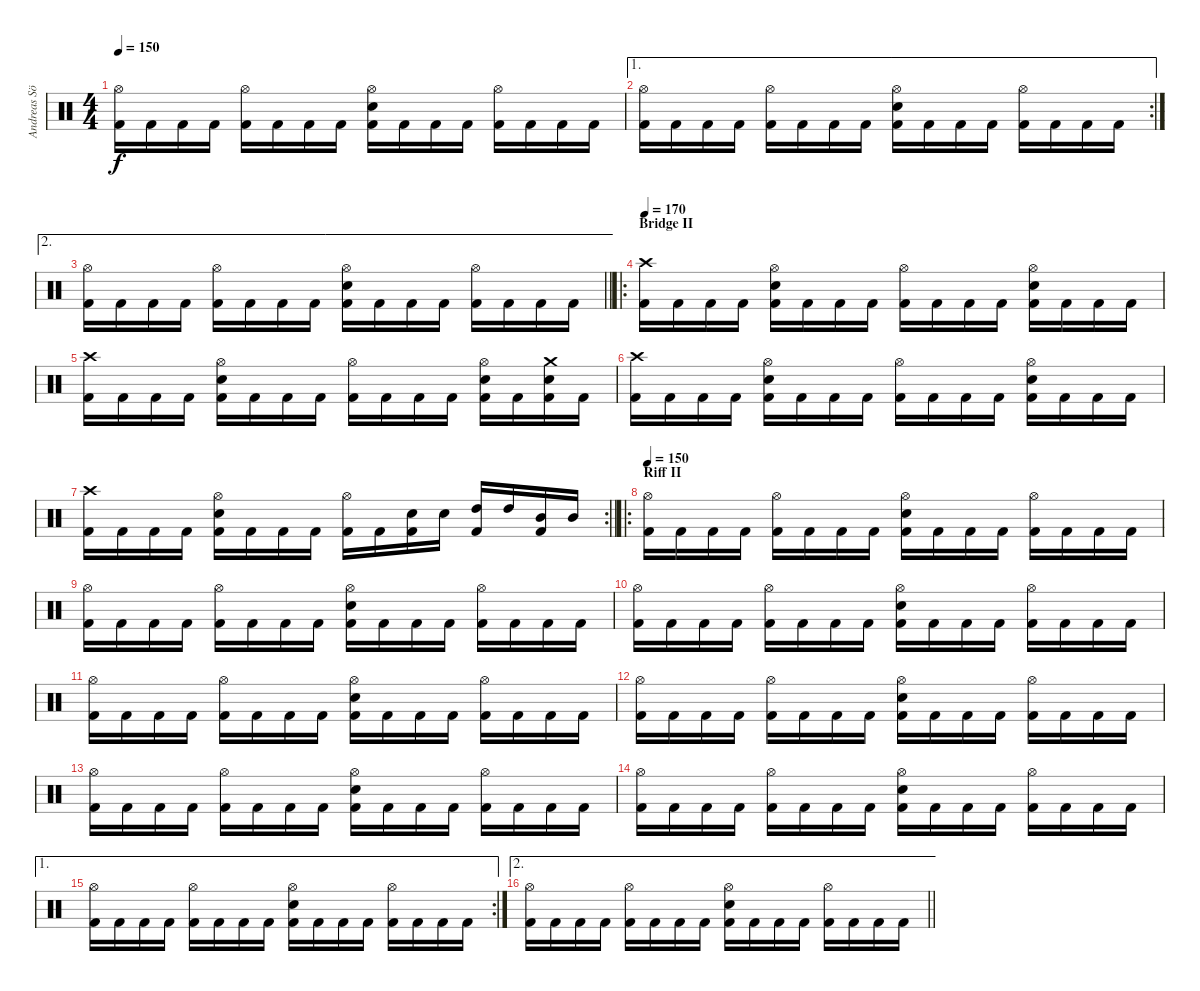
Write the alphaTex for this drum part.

\track ("Andreas Söderlund" "Andreas Sö") {instrument percussion}
\staff {score}
\articulation defaults
\ts (4 4)
\tempo 150
\clef neutral
\ks c
("Hi-Hat (open)" "Kick (hit) 2").16{dy f} "Kick (hit) 2".16 "Kick (hit) 2".16 "Kick (hit) 2".16 ("Hi-Hat (open)" "Kick (hit) 2").16 "Kick (hit) 2".16 "Kick (hit) 2".16 "Kick (hit) 2".16 ("Hi-Hat (open)" "Electric Snare (hit)" "Kick (hit) 2").16 "Kick (hit) 2".16 "Kick (hit) 2".16 "Kick (hit) 2".16 ("Hi-Hat (open)" "Kick (hit) 2").16 "Kick (hit) 2".16 "Kick (hit) 2".16 "Kick (hit) 2".16 |
\ae 1
\rc 2
("Hi-Hat (open)" "Kick (hit) 2").16 "Kick (hit) 2".16 "Kick (hit) 2".16 "Kick (hit) 2".16 ("Hi-Hat (open)" "Kick (hit) 2").16 "Kick (hit) 2".16 "Kick (hit) 2".16 "Kick (hit) 2".16 ("Hi-Hat (open)" "Electric Snare (hit)" "Kick (hit) 2").16 "Kick (hit) 2".16 "Kick (hit) 2".16 "Kick (hit) 2".16 ("Hi-Hat (open)" "Kick (hit) 2").16 "Kick (hit) 2".16 "Kick (hit) 2".16 "Kick (hit) 2".16 |
\ae 2
\barLineRight lightlight
("Hi-Hat (open)" "Kick (hit) 2").16 "Kick (hit) 2".16 "Kick (hit) 2".16 "Kick (hit) 2".16 ("Hi-Hat (open)" "Kick (hit) 2").16 "Kick (hit) 2".16 "Kick (hit) 2".16 "Kick (hit) 2".16 ("Hi-Hat (open)" "Electric Snare (hit)" "Kick (hit) 2").16 "Kick (hit) 2".16 "Kick (hit) 2".16 "Kick (hit) 2".16 ("Hi-Hat (open)" "Kick (hit) 2").16 "Kick (hit) 2".16 "Kick (hit) 2".16 "Kick (hit) 2".16 |
\ro
\section ("" "Bridge II")
\tempo 170
("Crash high (hit)" "Kick (hit) 2").16 "Kick (hit) 2".16 "Kick (hit) 2".16 "Kick (hit) 2".16 ("Hi-Hat (open)" "Electric Snare (hit)" "Kick (hit) 2").16 "Kick (hit) 2".16 "Kick (hit) 2".16 "Kick (hit) 2".16 ("Hi-Hat (open)" "Kick (hit) 2").16 "Kick (hit) 2".16 "Kick (hit) 2".16 "Kick (hit) 2".16 ("Hi-Hat (open)" "Electric Snare (hit)" "Kick (hit) 2").16 "Kick (hit) 2".16 "Kick (hit) 2".16 "Kick (hit) 2".16 |
("Crash high (hit)" "Kick (hit) 2").16 "Kick (hit) 2".16 "Kick (hit) 2".16 "Kick (hit) 2".16 ("Hi-Hat (open)" "Electric Snare (hit)" "Kick (hit) 2").16 "Kick (hit) 2".16 "Kick (hit) 2".16 "Kick (hit) 2".16 ("Hi-Hat (open)" "Kick (hit) 2").16 "Kick (hit) 2".16 "Kick (hit) 2".16 "Kick (hit) 2".16 ("Hi-Hat (open)" "Electric Snare (hit)" "Kick (hit) 2").16 "Kick (hit) 2".16 ("Crash medium (hit)" "Electric Snare (hit)" "Kick (hit) 2").16 "Kick (hit) 2".16 |
("Crash high (hit)" "Kick (hit) 2").16 "Kick (hit) 2".16 "Kick (hit) 2".16 "Kick (hit) 2".16 ("Hi-Hat (open)" "Electric Snare (hit)" "Kick (hit) 2").16 "Kick (hit) 2".16 "Kick (hit) 2".16 "Kick (hit) 2".16 ("Hi-Hat (open)" "Kick (hit) 2").16 "Kick (hit) 2".16 "Kick (hit) 2".16 "Kick (hit) 2".16 ("Hi-Hat (open)" "Electric Snare (hit)" "Kick (hit) 2").16 "Kick (hit) 2".16 "Kick (hit) 2".16 "Kick (hit) 2".16 |
\rc 2
\barLineRight lightlight
("Crash high (hit)" "Kick (hit) 2").16 "Kick (hit) 2".16 "Kick (hit) 2".16 "Kick (hit) 2".16 ("Hi-Hat (open)" "Electric Snare (hit)" "Kick (hit) 2").16 "Kick (hit) 2".16 "Kick (hit) 2".16 "Kick (hit) 2".16 ("Hi-Hat (open)" "Kick (hit) 2").16 "Kick (hit) 2".16 ("Electric Snare (hit)" "Kick (hit) 2").16 "Electric Snare (hit)".16 ("High Tom (hit)" "Kick (hit) 2").16 "High Tom (hit)".16 ("Mid Tom (hit)" "Kick (hit) 2").16 "Mid Tom (hit)".16 |
\ro
\section ("" "Riff II")
\tempo 150
("Hi-Hat (open)" "Kick (hit) 2").16 "Kick (hit) 2".16 "Kick (hit) 2".16 "Kick (hit) 2".16 ("Hi-Hat (open)" "Kick (hit) 2").16 "Kick (hit) 2".16 "Kick (hit) 2".16 "Kick (hit) 2".16 ("Hi-Hat (open)" "Electric Snare (hit)" "Kick (hit) 2").16 "Kick (hit) 2".16 "Kick (hit) 2".16 "Kick (hit) 2".16 ("Hi-Hat (open)" "Kick (hit) 2").16 "Kick (hit) 2".16 "Kick (hit) 2".16 "Kick (hit) 2".16 |
("Hi-Hat (open)" "Kick (hit) 2").16 "Kick (hit) 2".16 "Kick (hit) 2".16 "Kick (hit) 2".16 ("Hi-Hat (open)" "Kick (hit) 2").16 "Kick (hit) 2".16 "Kick (hit) 2".16 "Kick (hit) 2".16 ("Hi-Hat (open)" "Electric Snare (hit)" "Kick (hit) 2").16 "Kick (hit) 2".16 "Kick (hit) 2".16 "Kick (hit) 2".16 ("Hi-Hat (open)" "Kick (hit) 2").16 "Kick (hit) 2".16 "Kick (hit) 2".16 "Kick (hit) 2".16 |
("Hi-Hat (open)" "Kick (hit) 2").16 "Kick (hit) 2".16 "Kick (hit) 2".16 "Kick (hit) 2".16 ("Hi-Hat (open)" "Kick (hit) 2").16 "Kick (hit) 2".16 "Kick (hit) 2".16 "Kick (hit) 2".16 ("Hi-Hat (open)" "Electric Snare (hit)" "Kick (hit) 2").16 "Kick (hit) 2".16 "Kick (hit) 2".16 "Kick (hit) 2".16 ("Hi-Hat (open)" "Kick (hit) 2").16 "Kick (hit) 2".16 "Kick (hit) 2".16 "Kick (hit) 2".16 |
("Hi-Hat (open)" "Kick (hit) 2").16 "Kick (hit) 2".16 "Kick (hit) 2".16 "Kick (hit) 2".16 ("Hi-Hat (open)" "Kick (hit) 2").16 "Kick (hit) 2".16 "Kick (hit) 2".16 "Kick (hit) 2".16 ("Hi-Hat (open)" "Electric Snare (hit)" "Kick (hit) 2").16 "Kick (hit) 2".16 "Kick (hit) 2".16 "Kick (hit) 2".16 ("Hi-Hat (open)" "Kick (hit) 2").16 "Kick (hit) 2".16 "Kick (hit) 2".16 "Kick (hit) 2".16 |
("Hi-Hat (open)" "Kick (hit) 2").16 "Kick (hit) 2".16 "Kick (hit) 2".16 "Kick (hit) 2".16 ("Hi-Hat (open)" "Kick (hit) 2").16 "Kick (hit) 2".16 "Kick (hit) 2".16 "Kick (hit) 2".16 ("Hi-Hat (open)" "Electric Snare (hit)" "Kick (hit) 2").16 "Kick (hit) 2".16 "Kick (hit) 2".16 "Kick (hit) 2".16 ("Hi-Hat (open)" "Kick (hit) 2").16 "Kick (hit) 2".16 "Kick (hit) 2".16 "Kick (hit) 2".16 |
("Hi-Hat (open)" "Kick (hit) 2").16 "Kick (hit) 2".16 "Kick (hit) 2".16 "Kick (hit) 2".16 ("Hi-Hat (open)" "Kick (hit) 2").16 "Kick (hit) 2".16 "Kick (hit) 2".16 "Kick (hit) 2".16 ("Hi-Hat (open)" "Electric Snare (hit)" "Kick (hit) 2").16 "Kick (hit) 2".16 "Kick (hit) 2".16 "Kick (hit) 2".16 ("Hi-Hat (open)" "Kick (hit) 2").16 "Kick (hit) 2".16 "Kick (hit) 2".16 "Kick (hit) 2".16 |
("Hi-Hat (open)" "Kick (hit) 2").16 "Kick (hit) 2".16 "Kick (hit) 2".16 "Kick (hit) 2".16 ("Hi-Hat (open)" "Kick (hit) 2").16 "Kick (hit) 2".16 "Kick (hit) 2".16 "Kick (hit) 2".16 ("Hi-Hat (open)" "Electric Snare (hit)" "Kick (hit) 2").16 "Kick (hit) 2".16 "Kick (hit) 2".16 "Kick (hit) 2".16 ("Hi-Hat (open)" "Kick (hit) 2").16 "Kick (hit) 2".16 "Kick (hit) 2".16 "Kick (hit) 2".16 |
\ae 1
\rc 2
("Hi-Hat (open)" "Kick (hit) 2").16 "Kick (hit) 2".16 "Kick (hit) 2".16 "Kick (hit) 2".16 ("Hi-Hat (open)" "Kick (hit) 2").16 "Kick (hit) 2".16 "Kick (hit) 2".16 "Kick (hit) 2".16 ("Hi-Hat (open)" "Electric Snare (hit)" "Kick (hit) 2").16 "Kick (hit) 2".16 "Kick (hit) 2".16 "Kick (hit) 2".16 ("Hi-Hat (open)" "Kick (hit) 2").16 "Kick (hit) 2".16 "Kick (hit) 2".16 "Kick (hit) 2".16 |
\ae 2
\barLineRight lightlight
("Hi-Hat (open)" "Kick (hit) 2").16 "Kick (hit) 2".16 "Kick (hit) 2".16 "Kick (hit) 2".16 ("Hi-Hat (open)" "Kick (hit) 2").16 "Kick (hit) 2".16 "Kick (hit) 2".16 "Kick (hit) 2".16 ("Hi-Hat (open)" "Electric Snare (hit)" "Kick (hit) 2").16 "Kick (hit) 2".16 "Kick (hit) 2".16 "Kick (hit) 2".16 ("Hi-Hat (open)" "Kick (hit) 2").16 "Kick (hit) 2".16 "Kick (hit) 2".16 "Kick (hit) 2".16
